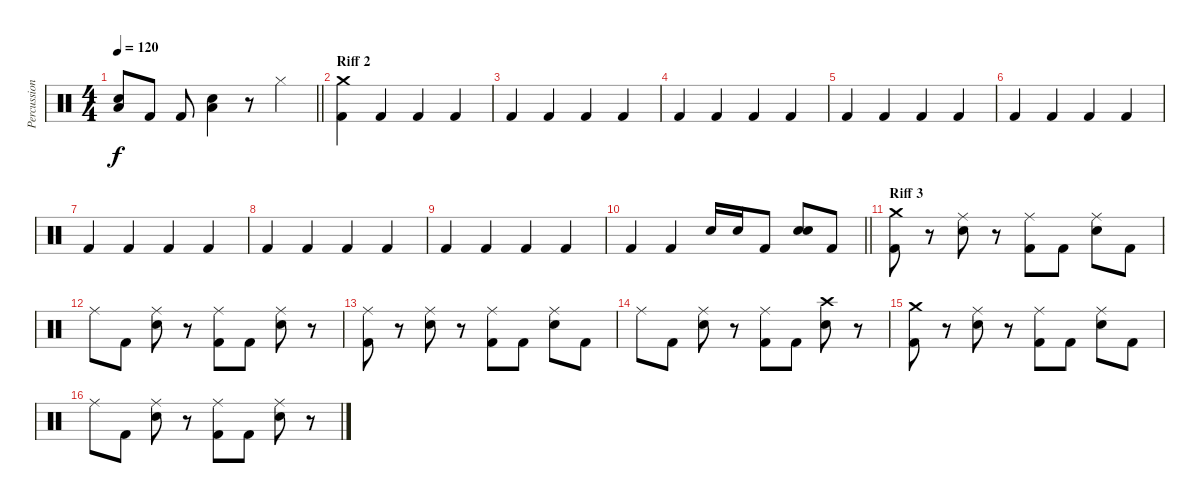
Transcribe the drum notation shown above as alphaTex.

\track ("Percussion" "Percussion") {instrument percussion}
\staff {score}
\articulation defaults
\ts (4 4)
\tempo 120
\clef neutral
\barLineRight lightlight
\ks c
("Snare (hit) 2" "Low Tom (hit)").8{dy f} "Kick (hit) 2".8 "Kick (hit) 2".8 ("Snare (hit) 2" "Low Tom (hit)").4 r.8 "Hi-Hat (closed)".4 |
\section ("" "Riff 2")
("Crash medium (hit)" "Kick (hit) 2").4 "Kick (hit) 2".4 "Kick (hit) 2".4 "Kick (hit) 2".4 |
"Kick (hit) 2".4 "Kick (hit) 2".4 "Kick (hit) 2".4 "Kick (hit) 2".4 |
"Kick (hit) 2".4 "Kick (hit) 2".4 "Kick (hit) 2".4 "Kick (hit) 2".4 |
"Kick (hit) 2".4 "Kick (hit) 2".4 "Kick (hit) 2".4 "Kick (hit) 2".4 |
"Kick (hit) 2".4 "Kick (hit) 2".4 "Kick (hit) 2".4 "Kick (hit) 2".4 |
"Kick (hit) 2".4 "Kick (hit) 2".4 "Kick (hit) 2".4 "Kick (hit) 2".4 |
"Kick (hit) 2".4 "Kick (hit) 2".4 "Kick (hit) 2".4 "Kick (hit) 2".4 |
"Kick (hit) 2".4 "Kick (hit) 2".4 "Kick (hit) 2".4 "Kick (hit) 2".4 |
\barLineRight lightlight "Kick (hit) 2".4 "Kick (hit) 2".4 "Snare (hit) 2".16 "Snare (hit) 2".16 "Kick (hit) 2".8
("Snare (hit) 2" "Snare (hit) 2").8 "Kick (hit) 2".8 |
\section ("" "Riff 3")
("Crash medium (hit)" "Kick (hit) 2").8 r.8 ("Ride (middle)" "Snare (hit) 2").8 r.8 ("Ride (middle)" "Kick (hit) 2").8 "Kick (hit) 2".8 ("Ride (middle)" "Snare (hit) 2").8 "Kick (hit) 2".8 |
"Ride (middle)".8 "Kick (hit) 2".8 ("Ride (middle)" "Snare (hit) 2").8 r.8 ("Ride (middle)" "Kick (hit) 2").8 "Kick (hit) 2".8 ("Ride (middle)" "Snare (hit) 2").8 r.8 |
("Ride (middle)" "Kick (hit) 2").8 r.8 ("Ride (middle)" "Snare (hit) 2").8 r.8 ("Ride (middle)" "Kick (hit) 2").8 "Kick (hit) 2".8 ("Ride (middle)" "Snare (hit) 2").8 "Kick (hit) 2".8 |
"Ride (middle)".8 "Kick (hit) 2".8 ("Ride (middle)" "Snare (hit) 2").8 r.8 ("Ride (middle)" "Kick (hit) 2").8 "Kick (hit) 2".8 ("Crash high (hit)" "Snare (hit) 2").8 r.8 |
("Crash medium (hit)" "Kick (hit) 2").8 r.8 ("Ride (middle)" "Snare (hit) 2").8 r.8 ("Ride (middle)" "Kick (hit) 2").8 "Kick (hit) 2".8 ("Ride (middle)" "Snare (hit) 2").8 "Kick (hit) 2".8 |
"Ride (middle)".8 "Kick (hit) 2".8 ("Ride (middle)" "Snare (hit) 2").8 r.8 ("Ride (middle)" "Kick (hit) 2").8 "Kick (hit) 2".8 ("Ride (middle)" "Snare (hit) 2").8 r.8
